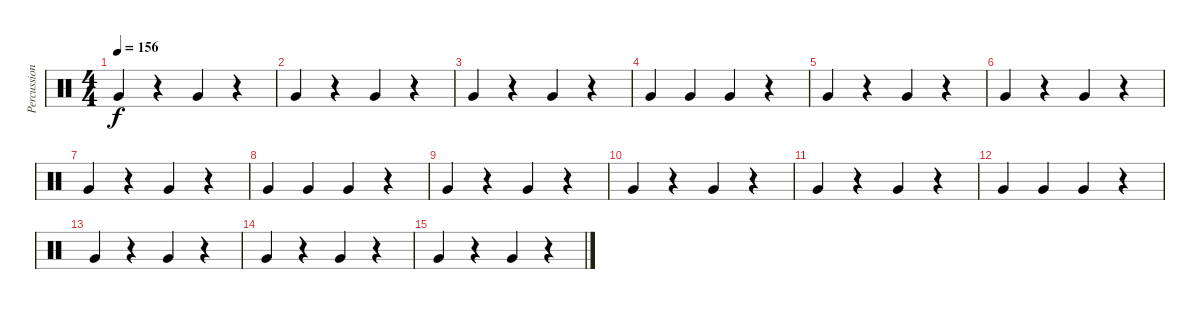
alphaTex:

\track ("Percussions" "Percussion") {instrument percussion}
\staff {score}
\articulation defaults
\ts (4 4)
\tempo 156
\clef neutral
\ks c "Very Low Tom (hit)".4{dy f}
r.4 "Very Low Tom (hit)".4 r.4 |
"Very Low Tom (hit)".4 r.4 "Very Low Tom (hit)".4 r.4 |
"Very Low Tom (hit)".4 r.4 "Very Low Tom (hit)".4 r.4 |
"Very Low Tom (hit)".4 "Very Low Tom (hit)".4 "Very Low Tom (hit)".4 r.4 |
"Very Low Tom (hit)".4 r.4 "Very Low Tom (hit)".4 r.4 |
"Very Low Tom (hit)".4 r.4 "Very Low Tom (hit)".4 r.4 |
"Very Low Tom (hit)".4 r.4 "Very Low Tom (hit)".4 r.4 |
"Very Low Tom (hit)".4 "Very Low Tom (hit)".4 "Very Low Tom (hit)".4 r.4 |
"Very Low Tom (hit)".4 r.4 "Very Low Tom (hit)".4 r.4 |
"Very Low Tom (hit)".4 r.4 "Very Low Tom (hit)".4 r.4 |
"Very Low Tom (hit)".4 r.4 "Very Low Tom (hit)".4 r.4 |
"Very Low Tom (hit)".4 "Very Low Tom (hit)".4 "Very Low Tom (hit)".4 r.4 |
"Very Low Tom (hit)".4 r.4 "Very Low Tom (hit)".4 r.4 |
"Very Low Tom (hit)".4 r.4 "Very Low Tom (hit)".4 r.4 |
"Very Low Tom (hit)".4 r.4 "Very Low Tom (hit)".4 r.4
